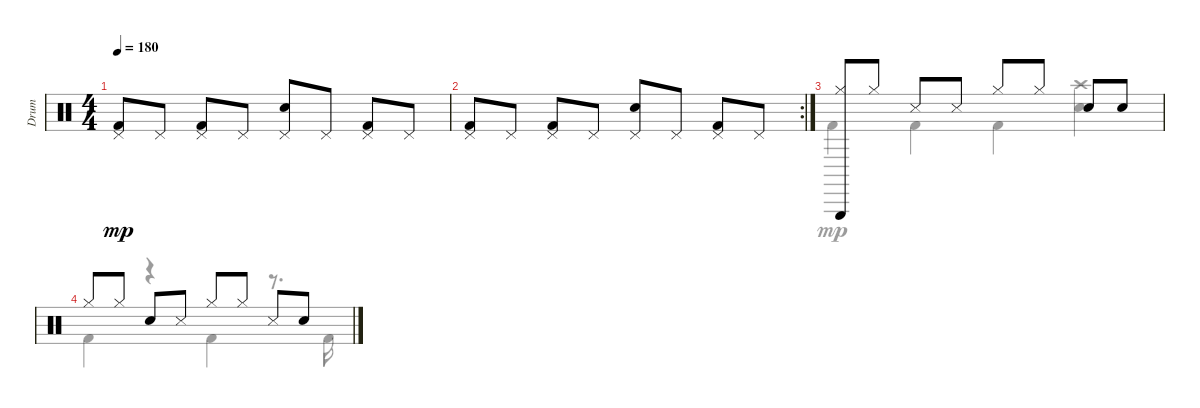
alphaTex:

\track ("Drum" "Drum") {instrument percussion}
\staff {score}
\articulation defaults
\voice
\ts (4 4)
\tempo 180
\clef neutral
\ks c
("Pedal Hi-Hat (hit)" "Kick (hit) 2").8{dy mp} "Pedal Hi-Hat (hit)".8 ("Pedal Hi-Hat (hit)" "Kick (hit) 2").8 "Pedal Hi-Hat (hit)".8 ("Pedal Hi-Hat (hit)" "Snare (hit) 2").8 "Pedal Hi-Hat (hit)".8 ("Pedal Hi-Hat (hit)" "Kick (hit) 2").8 "Pedal Hi-Hat (hit)".8 |
\rc 2
("Pedal Hi-Hat (hit)" "Kick (hit) 2").8 "Pedal Hi-Hat (hit)".8 ("Pedal Hi-Hat (hit)" "Kick (hit) 2").8 "Pedal Hi-Hat (hit)".8 ("Pedal Hi-Hat (hit)" "Snare (hit) 2").8 "Pedal Hi-Hat (hit)".8 ("Pedal Hi-Hat (hit)" "Kick (hit) 2").8 "Pedal Hi-Hat (hit)".8 |
("Triangle (hit)" "Hi-Hat (closed)").8 "Hi-Hat (closed)".8 "Snare (side stick) 3".8 "Snare (side stick) 3".8 "Hi-Hat (closed)".8 "Hi-Hat (closed)".8 "Hand Clap (hit)".8 "Hand Clap (hit)".8 |
"Hi-Hat (closed)".8 "Hi-Hat (closed)".8 "Hand Clap (hit)".8 "Snare (side stick) 3".8 "Hi-Hat (closed)".8 "Hi-Hat (closed)".8 "Snare (side stick) 3".8 "Hand Clap (hit)".8
\voice
\clef neutral
\ottava regular
\simile none
\ks c
|
|
"Kick (hit) 2".4 "Kick (hit) 2".4 "Kick (hit) 2".4 ("Crash high (hit)" "Snare (hit) 2").4 |
"Kick (hit) 2".4 r.4 "Kick (hit) 2".4 r.8{d} "Kick (hit) 2".16
